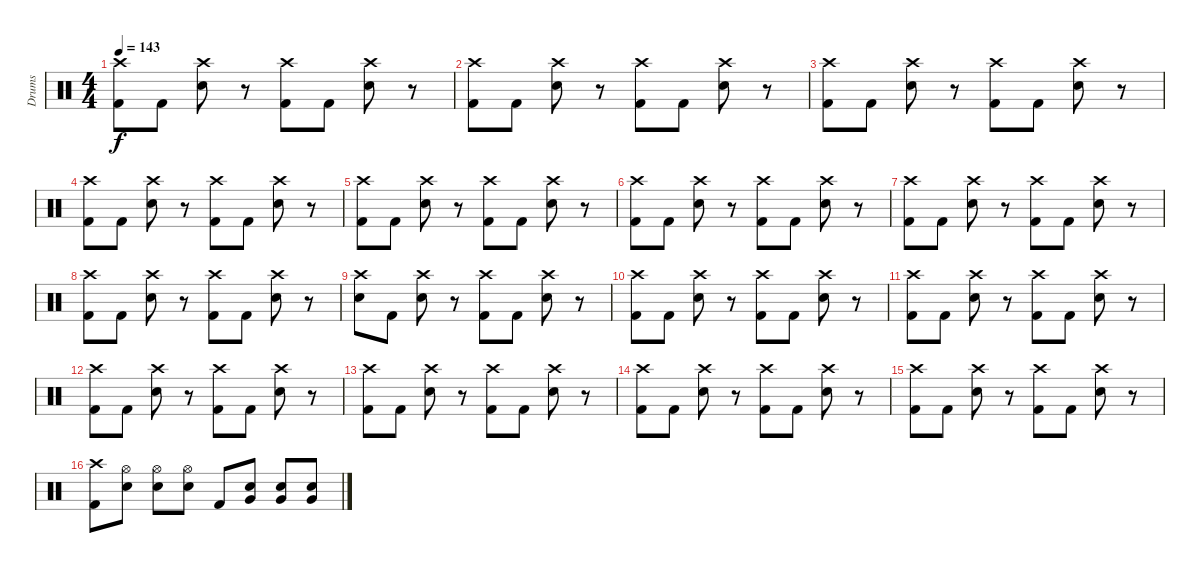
\track ("Drums" "Drums") {instrument percussion}
\staff {score}
\articulation defaults
\ts (4 4)
\tempo 143
\clef neutral
\ks c
("Crash high (hit)" "Kick (hit) 2").8{dy f} "Kick (hit) 2".8 ("Crash high (hit)" "Electric Snare (hit)").8 r.8 ("Crash high (hit)" "Kick (hit) 2").8 "Kick (hit) 2".8 ("Crash high (hit)" "Electric Snare (hit)").8 r.8 |
("Crash high (hit)" "Kick (hit) 2").8 "Kick (hit) 2".8 ("Crash high (hit)" "Electric Snare (hit)").8 r.8 ("Crash high (hit)" "Kick (hit) 2").8 "Kick (hit) 2".8 ("Crash high (hit)" "Electric Snare (hit)").8 r.8 |
("Crash high (hit)" "Kick (hit) 2").8 "Kick (hit) 2".8 ("Crash high (hit)" "Electric Snare (hit)").8 r.8 ("Crash high (hit)" "Kick (hit) 2").8 "Kick (hit) 2".8 ("Crash high (hit)" "Electric Snare (hit)").8 r.8 |
("Crash high (hit)" "Kick (hit) 2").8 "Kick (hit) 2".8 ("Crash high (hit)" "Electric Snare (hit)").8 r.8 ("Crash high (hit)" "Kick (hit) 2").8 "Kick (hit) 2".8 ("Crash high (hit)" "Electric Snare (hit)").8 r.8 |
("Crash high (hit)" "Kick (hit) 2").8 "Kick (hit) 2".8 ("Crash high (hit)" "Electric Snare (hit)").8 r.8 ("Crash high (hit)" "Kick (hit) 2").8 "Kick (hit) 2".8 ("Crash high (hit)" "Electric Snare (hit)").8 r.8 |
("Crash high (hit)" "Kick (hit) 2").8 "Kick (hit) 2".8 ("Crash high (hit)" "Electric Snare (hit)").8 r.8 ("Crash high (hit)" "Kick (hit) 2").8 "Kick (hit) 2".8 ("Crash high (hit)" "Electric Snare (hit)").8 r.8 |
("Crash high (hit)" "Kick (hit) 2").8 "Kick (hit) 2".8 ("Crash high (hit)" "Electric Snare (hit)").8 r.8 ("Crash high (hit)" "Kick (hit) 2").8 "Kick (hit) 2".8 ("Crash high (hit)" "Electric Snare (hit)").8 r.8 |
("Crash high (hit)" "Kick (hit) 2").8 "Kick (hit) 2".8 ("Crash high (hit)" "Electric Snare (hit)").8 r.8 ("Crash high (hit)" "Kick (hit) 2").8 "Kick (hit) 2".8 ("Crash high (hit)" "Electric Snare (hit)").8 r.8 |
("Crash high (hit)" "Electric Snare (hit)").8 "Kick (hit) 2".8 ("Crash high (hit)" "Electric Snare (hit)").8 r.8 ("Crash high (hit)" "Kick (hit) 2").8 "Kick (hit) 2".8 ("Crash high (hit)" "Electric Snare (hit)").8 r.8 |
("Crash high (hit)" "Kick (hit) 2").8 "Kick (hit) 2".8 ("Crash high (hit)" "Electric Snare (hit)").8 r.8 ("Crash high (hit)" "Kick (hit) 2").8 "Kick (hit) 2".8 ("Crash high (hit)" "Electric Snare (hit)").8 r.8 |
("Crash high (hit)" "Kick (hit) 2").8 "Kick (hit) 2".8 ("Crash high (hit)" "Electric Snare (hit)").8 r.8 ("Crash high (hit)" "Kick (hit) 2").8 "Kick (hit) 2".8 ("Crash high (hit)" "Electric Snare (hit)").8 r.8 |
("Crash high (hit)" "Kick (hit) 2").8 "Kick (hit) 2".8 ("Crash high (hit)" "Electric Snare (hit)").8 r.8 ("Crash high (hit)" "Kick (hit) 2").8 "Kick (hit) 2".8 ("Crash high (hit)" "Electric Snare (hit)").8 r.8 |
("Crash high (hit)" "Kick (hit) 2").8 "Kick (hit) 2".8 ("Crash high (hit)" "Electric Snare (hit)").8 r.8 ("Crash high (hit)" "Kick (hit) 2").8 "Kick (hit) 2".8 ("Crash high (hit)" "Electric Snare (hit)").8 r.8 |
("Crash high (hit)" "Kick (hit) 2").8 "Kick (hit) 2".8 ("Crash high (hit)" "Electric Snare (hit)").8 r.8 ("Crash high (hit)" "Kick (hit) 2").8 "Kick (hit) 2".8 ("Crash high (hit)" "Electric Snare (hit)").8 r.8 |
("Crash high (hit)" "Kick (hit) 2").8 "Kick (hit) 2".8 ("Crash high (hit)" "Electric Snare (hit)").8 r.8 ("Crash high (hit)" "Kick (hit) 2").8 "Kick (hit) 2".8 ("Crash high (hit)" "Electric Snare (hit)").8 r.8 |
("Crash high (hit)" "Kick (hit) 2").8 ("Hi-Hat (open)" "Electric Snare (hit)").8 ("Hi-Hat (open)" "Electric Snare (hit)").8 ("Hi-Hat (open)" "Electric Snare (hit)").8 "Kick (hit) 2".8 ("Very Low Tom (hit)" "Electric Snare (hit)").8 ("Very Low Tom (hit)" "Electric Snare (hit)").8 ("Very Low Tom (hit)" "Electric Snare (hit)").8
